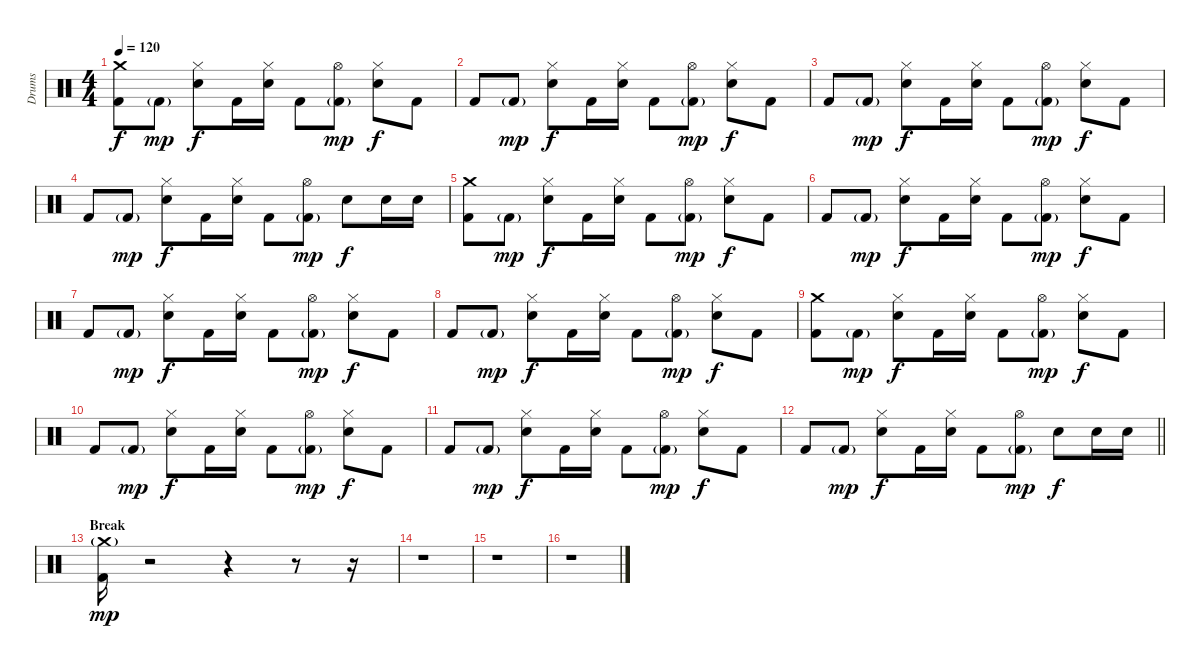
\track ("Drums" "Drums") {instrument percussion}
\staff {score}
\articulation defaults
\ts (4 4)
\tempo 120
\clef neutral
\ks c
("Crash medium (hit)" "Kick (hit) 2").8{dy f} "Kick (hit) 2"{g}.8{dy mp} ("Hi-Hat (closed)" "Snare (hit) 2").8{dy f} "Kick (hit) 2".16 ("Hi-Hat (closed)" "Snare (hit) 2").16 "Kick (hit) 2".8 ("Hi-Hat (open)" "Kick (hit) 2"{g}).8{dy mp} ("Hi-Hat (closed)" "Snare (hit) 2").8{dy f} "Kick (hit) 2".8 |
"Kick (hit) 2".8 "Kick (hit) 2"{g}.8{dy mp} ("Hi-Hat (closed)" "Snare (hit) 2").8{dy f} "Kick (hit) 2".16 ("Hi-Hat (closed)" "Snare (hit) 2").16 "Kick (hit) 2".8 ("Hi-Hat (open)" "Kick (hit) 2"{g}).8{dy mp} ("Hi-Hat (closed)" "Snare (hit) 2").8{dy f} "Kick (hit) 2".8 |
"Kick (hit) 2".8 "Kick (hit) 2"{g}.8{dy mp} ("Hi-Hat (closed)" "Snare (hit) 2").8{dy f} "Kick (hit) 2".16 ("Hi-Hat (closed)" "Snare (hit) 2").16 "Kick (hit) 2".8 ("Hi-Hat (open)" "Kick (hit) 2"{g}).8{dy mp} ("Hi-Hat (closed)" "Snare (hit) 2").8{dy f} "Kick (hit) 2".8 |
"Kick (hit) 2".8 "Kick (hit) 2"{g}.8{dy mp} ("Hi-Hat (closed)" "Snare (hit) 2").8{dy f} "Kick (hit) 2".16 ("Hi-Hat (closed)" "Snare (hit) 2").16 "Kick (hit) 2".8 ("Hi-Hat (open)" "Kick (hit) 2"{g}).8{dy mp} "Snare (hit) 2".8{dy f} "Snare (hit) 2".16 "Snare (hit) 2".16 |
("Crash medium (hit)" "Kick (hit) 2").8 "Kick (hit) 2"{g}.8{dy mp} ("Hi-Hat (closed)" "Snare (hit) 2").8{dy f} "Kick (hit) 2".16 ("Hi-Hat (closed)" "Snare (hit) 2").16 "Kick (hit) 2".8 ("Hi-Hat (open)" "Kick (hit) 2"{g}).8{dy mp} ("Hi-Hat (closed)" "Snare (hit) 2").8{dy f} "Kick (hit) 2".8 |
"Kick (hit) 2".8 "Kick (hit) 2"{g}.8{dy mp} ("Hi-Hat (closed)" "Snare (hit) 2").8{dy f} "Kick (hit) 2".16 ("Hi-Hat (closed)" "Snare (hit) 2").16 "Kick (hit) 2".8 ("Hi-Hat (open)" "Kick (hit) 2"{g}).8{dy mp} ("Hi-Hat (closed)" "Snare (hit) 2").8{dy f} "Kick (hit) 2".8 |
"Kick (hit) 2".8 "Kick (hit) 2"{g}.8{dy mp} ("Hi-Hat (closed)" "Snare (hit) 2").8{dy f} "Kick (hit) 2".16 ("Hi-Hat (closed)" "Snare (hit) 2").16 "Kick (hit) 2".8 ("Hi-Hat (open)" "Kick (hit) 2"{g}).8{dy mp} ("Hi-Hat (closed)" "Snare (hit) 2").8{dy f} "Kick (hit) 2".8 |
"Kick (hit) 2".8 "Kick (hit) 2"{g}.8{dy mp} ("Hi-Hat (closed)" "Snare (hit) 2").8{dy f} "Kick (hit) 2".16 ("Hi-Hat (closed)" "Snare (hit) 2").16 "Kick (hit) 2".8 ("Hi-Hat (open)" "Kick (hit) 2"{g}).8{dy mp} ("Hi-Hat (closed)" "Snare (hit) 2").8{dy f} "Kick (hit) 2".8 |
("Crash medium (hit)" "Kick (hit) 2").8 "Kick (hit) 2"{g}.8{dy mp} ("Hi-Hat (closed)" "Snare (hit) 2").8{dy f} "Kick (hit) 2".16 ("Hi-Hat (closed)" "Snare (hit) 2").16 "Kick (hit) 2".8 ("Hi-Hat (open)" "Kick (hit) 2"{g}).8{dy mp} ("Hi-Hat (closed)" "Snare (hit) 2").8{dy f} "Kick (hit) 2".8 |
"Kick (hit) 2".8 "Kick (hit) 2"{g}.8{dy mp} ("Hi-Hat (closed)" "Snare (hit) 2").8{dy f} "Kick (hit) 2".16 ("Hi-Hat (closed)" "Snare (hit) 2").16 "Kick (hit) 2".8 ("Hi-Hat (open)" "Kick (hit) 2"{g}).8{dy mp} ("Hi-Hat (closed)" "Snare (hit) 2").8{dy f} "Kick (hit) 2".8 |
"Kick (hit) 2".8 "Kick (hit) 2"{g}.8{dy mp} ("Hi-Hat (closed)" "Snare (hit) 2").8{dy f} "Kick (hit) 2".16 ("Hi-Hat (closed)" "Snare (hit) 2").16 "Kick (hit) 2".8 ("Hi-Hat (open)" "Kick (hit) 2"{g}).8{dy mp} ("Hi-Hat (closed)" "Snare (hit) 2").8{dy f} "Kick (hit) 2".8 |
\barLineRight lightlight "Kick (hit) 2".8 "Kick (hit) 2"{g}.8{dy mp}
("Hi-Hat (closed)" "Snare (hit) 2").8{dy f} "Kick (hit) 2".16 ("Hi-Hat (closed)" "Snare (hit) 2").16 "Kick (hit) 2".8 ("Hi-Hat (open)" "Kick (hit) 2"{g}).8{dy mp} "Snare (hit) 2".8{dy f} "Snare (hit) 2".16 "Snare (hit) 2".16 |
\section ("" "Break")
("Crash medium (hit)"{g} "Kick (hit) 2").16{dy mp} r.2 r.4 r.8 r.16 |
r.1 |
r.1 |
r.1
